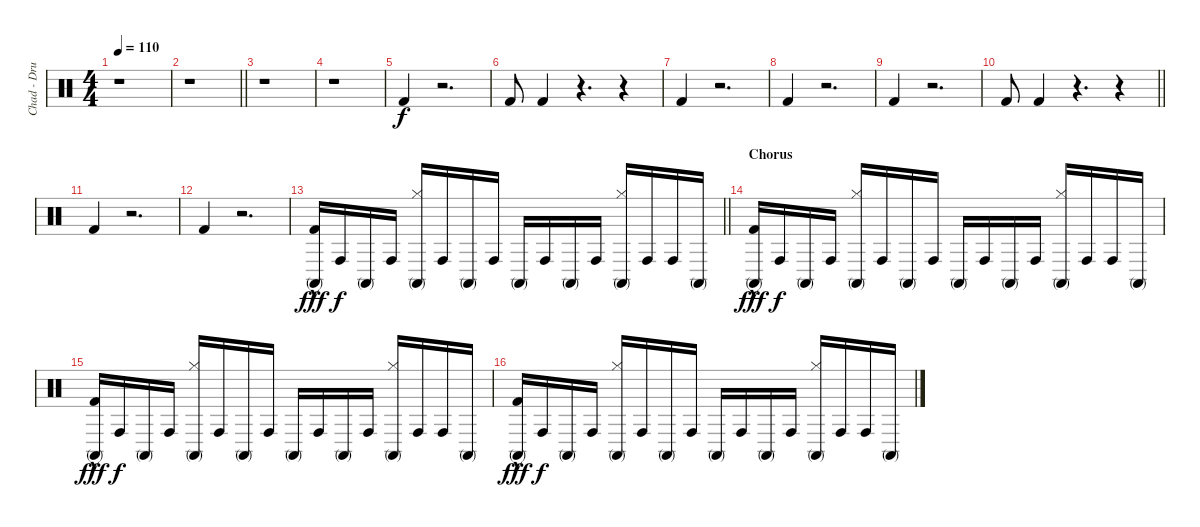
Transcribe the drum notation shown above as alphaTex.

\track ("Chad - Drums" "Chad - Dru") {instrument percussion}
\staff {score}
\articulation defaults
\ts (4 4)
\tempo 110
\clef neutral
\ks c
r.1{dy f} |
\barLineRight lightlight
r.1 |
r.1 |
r.1 |
"Kick (hit) 2".4 r.2{d} |
"Kick (hit) 2".8 "Kick (hit) 2".4 r.4{d} r.4 |
"Kick (hit) 2".4 r.2{d} |
"Kick (hit) 2".4 r.2{d} |
"Kick (hit) 2".4 r.2{d} |
\barLineRight lightlight "Kick (hit) 2".8 "Kick (hit) 2".4
r.4{d} r.4 |
"Kick (hit) 2".4 r.2{d} |
"Kick (hit) 2".4 r.2{d} |
\barLineRight lightlight
("Conga high (mute)" "Kick (hit) 2"{hac}).16{dy fff} "Conga high (hit)".16{dy f} "Conga high (mute)".16 "Conga high (hit)".16 ("Conga high (mute)" "Hi-Hat (closed)").16 "Conga high (hit)".16 "Conga high (mute)".16 "Conga high (hit)".16 "Conga high (mute)".16 "Conga high (hit)".16 "Conga high (mute)".16 "Conga high (hit)".16 ("Conga high (mute)" "Hi-Hat (closed)").16 "Conga high (hit)".16 "Conga high (hit)".16 "Conga high (mute)".16 |
\section ("" "Chorus")
("Conga high (mute)" "Kick (hit) 2"{hac}).16{dy fff} "Conga high (hit)".16{dy f} "Conga high (mute)".16 "Conga high (hit)".16 ("Conga high (mute)" "Hi-Hat (closed)").16 "Conga high (hit)".16 "Conga high (mute)".16 "Conga high (hit)".16 "Conga high (mute)".16 "Conga high (hit)".16 "Conga high (mute)".16 "Conga high (hit)".16 ("Conga high (mute)" "Hi-Hat (closed)").16 "Conga high (hit)".16 "Conga high (hit)".16 "Conga high (mute)".16 |
("Conga high (mute)" "Kick (hit) 2"{hac}).16{dy fff} "Conga high (hit)".16{dy f} "Conga high (mute)".16 "Conga high (hit)".16 ("Conga high (mute)" "Hi-Hat (closed)").16 "Conga high (hit)".16 "Conga high (mute)".16 "Conga high (hit)".16 "Conga high (mute)".16 "Conga high (hit)".16 "Conga high (mute)".16 "Conga high (hit)".16 ("Conga high (mute)" "Hi-Hat (closed)").16 "Conga high (hit)".16 "Conga high (hit)".16 "Conga high (mute)".16 |
("Conga high (mute)" "Kick (hit) 2"{hac}).16{dy fff} "Conga high (hit)".16{dy f} "Conga high (mute)".16 "Conga high (hit)".16 ("Conga high (mute)" "Hi-Hat (closed)").16 "Conga high (hit)".16 "Conga high (mute)".16 "Conga high (hit)".16 "Conga high (mute)".16 "Conga high (hit)".16 "Conga high (mute)".16 "Conga high (hit)".16 ("Conga high (mute)" "Hi-Hat (closed)").16 "Conga high (hit)".16 "Conga high (hit)".16 "Conga high (mute)".16
